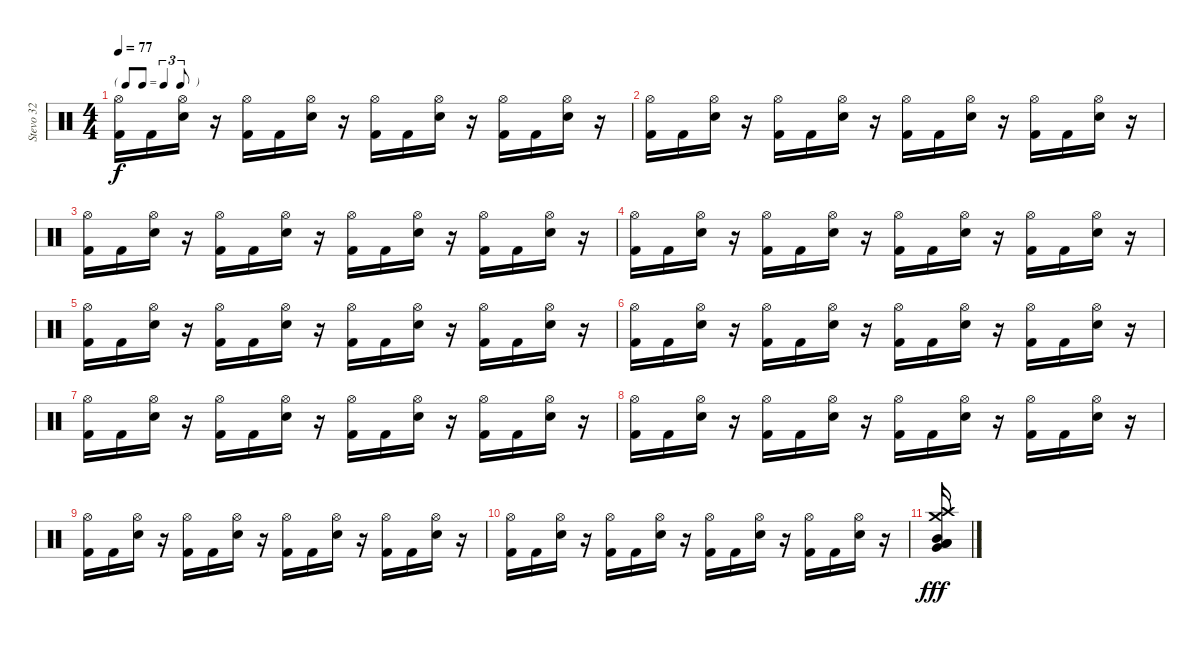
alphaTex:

\track ("Stevo 32" "Stevo 32") {instrument percussion}
\staff {score}
\articulation defaults
\ts (4 4)
\tf triplet8th
\tempo 77
\clef neutral
\ks c
("Hi-Hat (open)" "Kick (hit) 2").16{dy f} "Kick (hit) 2".16 ("Hi-Hat (open)" "Electric Snare (hit)").16 r.16 ("Hi-Hat (open)" "Kick (hit) 2").16 "Kick (hit) 2".16 ("Hi-Hat (open)" "Electric Snare (hit)").16 r.16 ("Hi-Hat (open)" "Kick (hit) 2").16 "Kick (hit) 2".16 ("Hi-Hat (open)" "Electric Snare (hit)").16 r.16 ("Hi-Hat (open)" "Kick (hit) 2").16 "Kick (hit) 2".16 ("Hi-Hat (open)" "Electric Snare (hit)").16 r.16 |
("Hi-Hat (open)" "Kick (hit) 2").16 "Kick (hit) 2".16 ("Hi-Hat (open)" "Electric Snare (hit)").16 r.16 ("Hi-Hat (open)" "Kick (hit) 2").16 "Kick (hit) 2".16 ("Hi-Hat (open)" "Electric Snare (hit)").16 r.16 ("Hi-Hat (open)" "Kick (hit) 2").16 "Kick (hit) 2".16 ("Hi-Hat (open)" "Electric Snare (hit)").16 r.16 ("Hi-Hat (open)" "Kick (hit) 2").16 "Kick (hit) 2".16 ("Hi-Hat (open)" "Electric Snare (hit)").16 r.16 |
("Hi-Hat (open)" "Kick (hit) 2").16 "Kick (hit) 2".16 ("Hi-Hat (open)" "Electric Snare (hit)").16 r.16 ("Hi-Hat (open)" "Kick (hit) 2").16 "Kick (hit) 2".16 ("Hi-Hat (open)" "Electric Snare (hit)").16 r.16 ("Hi-Hat (open)" "Kick (hit) 2").16 "Kick (hit) 2".16 ("Hi-Hat (open)" "Electric Snare (hit)").16 r.16 ("Hi-Hat (open)" "Kick (hit) 2").16 "Kick (hit) 2".16 ("Hi-Hat (open)" "Electric Snare (hit)").16 r.16 |
("Hi-Hat (open)" "Kick (hit) 2").16 "Kick (hit) 2".16 ("Hi-Hat (open)" "Electric Snare (hit)").16 r.16 ("Hi-Hat (open)" "Kick (hit) 2").16 "Kick (hit) 2".16 ("Hi-Hat (open)" "Electric Snare (hit)").16 r.16 ("Hi-Hat (open)" "Kick (hit) 2").16 "Kick (hit) 2".16 ("Hi-Hat (open)" "Electric Snare (hit)").16 r.16 ("Hi-Hat (open)" "Kick (hit) 2").16 "Kick (hit) 2".16 ("Hi-Hat (open)" "Electric Snare (hit)").16 r.16 |
("Hi-Hat (open)" "Kick (hit) 2").16 "Kick (hit) 2".16 ("Hi-Hat (open)" "Electric Snare (hit)").16 r.16 ("Hi-Hat (open)" "Kick (hit) 2").16 "Kick (hit) 2".16 ("Hi-Hat (open)" "Electric Snare (hit)").16 r.16 ("Hi-Hat (open)" "Kick (hit) 2").16 "Kick (hit) 2".16 ("Hi-Hat (open)" "Electric Snare (hit)").16 r.16 ("Hi-Hat (open)" "Kick (hit) 2").16 "Kick (hit) 2".16 ("Hi-Hat (open)" "Electric Snare (hit)").16 r.16 |
("Hi-Hat (open)" "Kick (hit) 2").16 "Kick (hit) 2".16 ("Hi-Hat (open)" "Electric Snare (hit)").16 r.16 ("Hi-Hat (open)" "Kick (hit) 2").16 "Kick (hit) 2".16 ("Hi-Hat (open)" "Electric Snare (hit)").16 r.16 ("Hi-Hat (open)" "Kick (hit) 2").16 "Kick (hit) 2".16 ("Hi-Hat (open)" "Electric Snare (hit)").16 r.16 ("Hi-Hat (open)" "Kick (hit) 2").16 "Kick (hit) 2".16 ("Hi-Hat (open)" "Electric Snare (hit)").16 r.16 |
("Hi-Hat (open)" "Kick (hit) 2").16 "Kick (hit) 2".16 ("Hi-Hat (open)" "Electric Snare (hit)").16 r.16 ("Hi-Hat (open)" "Kick (hit) 2").16 "Kick (hit) 2".16 ("Hi-Hat (open)" "Electric Snare (hit)").16 r.16 ("Hi-Hat (open)" "Kick (hit) 2").16 "Kick (hit) 2".16 ("Hi-Hat (open)" "Electric Snare (hit)").16 r.16 ("Hi-Hat (open)" "Kick (hit) 2").16 "Kick (hit) 2".16 ("Hi-Hat (open)" "Electric Snare (hit)").16 r.16 |
("Hi-Hat (open)" "Kick (hit) 2").16 "Kick (hit) 2".16 ("Hi-Hat (open)" "Electric Snare (hit)").16 r.16 ("Hi-Hat (open)" "Kick (hit) 2").16 "Kick (hit) 2".16 ("Hi-Hat (open)" "Electric Snare (hit)").16 r.16 ("Hi-Hat (open)" "Kick (hit) 2").16 "Kick (hit) 2".16 ("Hi-Hat (open)" "Electric Snare (hit)").16 r.16 ("Hi-Hat (open)" "Kick (hit) 2").16 "Kick (hit) 2".16 ("Hi-Hat (open)" "Electric Snare (hit)").16 r.16 |
("Hi-Hat (open)" "Kick (hit) 2").16 "Kick (hit) 2".16 ("Hi-Hat (open)" "Electric Snare (hit)").16 r.16 ("Hi-Hat (open)" "Kick (hit) 2").16 "Kick (hit) 2".16 ("Hi-Hat (open)" "Electric Snare (hit)").16 r.16 ("Hi-Hat (open)" "Kick (hit) 2").16 "Kick (hit) 2".16 ("Hi-Hat (open)" "Electric Snare (hit)").16 r.16 ("Hi-Hat (open)" "Kick (hit) 2").16 "Kick (hit) 2".16 ("Hi-Hat (open)" "Electric Snare (hit)").16 r.16 |
("Hi-Hat (open)" "Kick (hit) 2").16 "Kick (hit) 2".16 ("Hi-Hat (open)" "Electric Snare (hit)").16 r.16 ("Hi-Hat (open)" "Kick (hit) 2").16 "Kick (hit) 2".16 ("Hi-Hat (open)" "Electric Snare (hit)").16 r.16 ("Hi-Hat (open)" "Kick (hit) 2").16 "Kick (hit) 2".16 ("Hi-Hat (open)" "Electric Snare (hit)").16 r.16 ("Hi-Hat (open)" "Kick (hit) 2").16 "Kick (hit) 2".16 ("Hi-Hat (open)" "Electric Snare (hit)").16 r.16 |
("Low Tom (hit)" "Mid Tom (hit)" "Crash high (hit)" "Crash medium (hit)" "Very Low Tom (hit)" "Low Floor Tom (hit)").16{dy fff}
